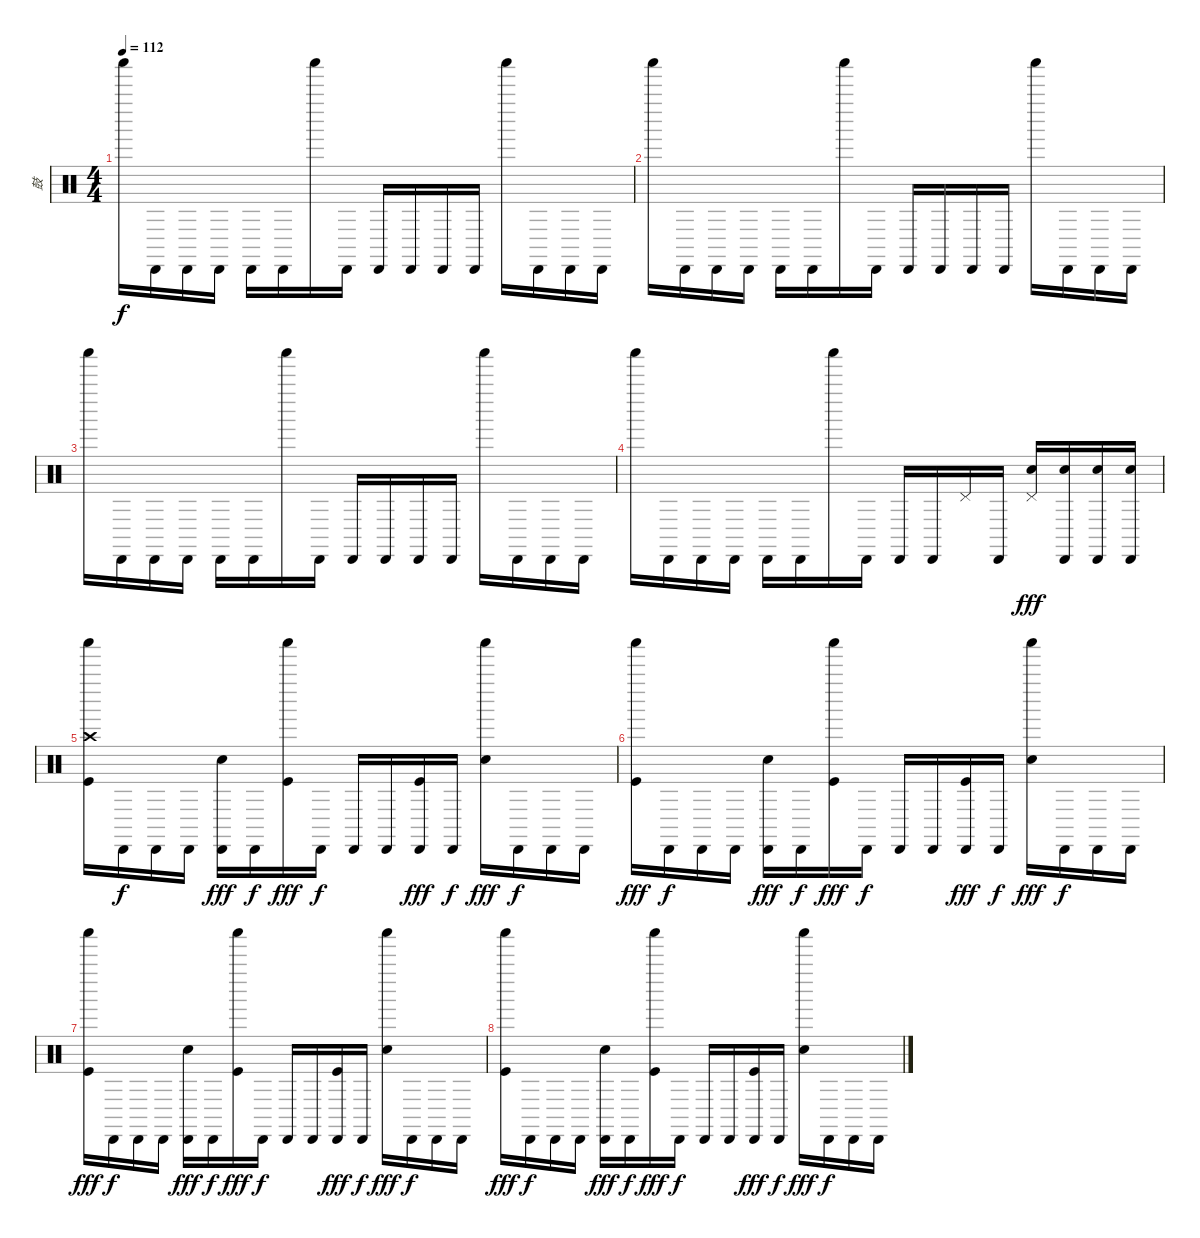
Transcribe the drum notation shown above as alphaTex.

\track ("鼓" "鼓") {instrument percussion}
\staff {score}
\articulation defaults
\ts (4 4)
\tempo 112
\clef neutral
\ks c "Shaker (hit)".16{dy f} "Cabasa (hit)".16 "Cabasa (hit)".16 "Cabasa (hit)".16 "Cabasa (hit)".16 "Cabasa (hit)".16 "Shaker (hit)".16 "Cabasa (hit)".16 "Cabasa (hit)".16 "Cabasa (hit)".16 "Cabasa (hit)".16 "Cabasa (hit)".16 "Shaker (hit)".16 "Cabasa (hit)".16 "Cabasa (hit)".16 "Cabasa (hit)".16
|
"Shaker (hit)".16 "Cabasa (hit)".16 "Cabasa (hit)".16 "Cabasa (hit)".16 "Cabasa (hit)".16 "Cabasa (hit)".16 "Shaker (hit)".16 "Cabasa (hit)".16 "Cabasa (hit)".16 "Cabasa (hit)".16 "Cabasa (hit)".16 "Cabasa (hit)".16 "Shaker (hit)".16 "Cabasa (hit)".16 "Cabasa (hit)".16 "Cabasa (hit)".16 |
"Shaker (hit)".16 "Cabasa (hit)".16 "Cabasa (hit)".16 "Cabasa (hit)".16 "Cabasa (hit)".16 "Cabasa (hit)".16 "Shaker (hit)".16 "Cabasa (hit)".16 "Cabasa (hit)".16 "Cabasa (hit)".16 "Cabasa (hit)".16 "Cabasa (hit)".16 "Shaker (hit)".16 "Cabasa (hit)".16 "Cabasa (hit)".16 "Cabasa (hit)".16 |
"Shaker (hit)".16 "Cabasa (hit)".16 "Cabasa (hit)".16 "Cabasa (hit)".16 "Cabasa (hit)".16 "Cabasa (hit)".16 "Shaker (hit)".16 "Cabasa (hit)".16 "Cabasa (hit)".16 "Cabasa (hit)".16 "Pedal Hi-Hat (hit)".16 "Cabasa (hit)".16 ("Pedal Hi-Hat (hit)" "Electric Snare (hit)").16{dy fff} ("Cabasa (hit)" "Electric Snare (hit)").16 ("Cabasa (hit)" "Electric Snare (hit)").16 ("Cabasa (hit)" "Electric Snare (hit)").16 |
("Shaker (hit)" "Crash high (hit)" "Kick (hit)").16 "Cabasa (hit)".16{dy f} "Cabasa (hit)".16 "Cabasa (hit)".16 ("Cabasa (hit)" "Electric Snare (hit)").16{dy fff} "Cabasa (hit)".16{dy f} ("Shaker (hit)" "Kick (hit)").16{dy fff} "Cabasa (hit)".16{dy f} "Cabasa (hit)".16 "Cabasa (hit)".16 ("Cabasa (hit)" "Kick (hit)").16{dy fff} "Cabasa (hit)".16{dy f} ("Shaker (hit)" "Electric Snare (hit)").16{dy fff} "Cabasa (hit)".16{dy f} "Cabasa (hit)".16 "Cabasa (hit)".16 |
("Shaker (hit)" "Kick (hit)").16{dy fff} "Cabasa (hit)".16{dy f} "Cabasa (hit)".16 "Cabasa (hit)".16 ("Cabasa (hit)" "Electric Snare (hit)").16{dy fff} "Cabasa (hit)".16{dy f} ("Shaker (hit)" "Kick (hit)").16{dy fff} "Cabasa (hit)".16{dy f} "Cabasa (hit)".16 "Cabasa (hit)".16 ("Cabasa (hit)" "Kick (hit)").16{dy fff} "Cabasa (hit)".16{dy f} ("Shaker (hit)" "Electric Snare (hit)").16{dy fff} "Cabasa (hit)".16{dy f} "Cabasa (hit)".16 "Cabasa (hit)".16 |
("Shaker (hit)" "Kick (hit)").16{dy fff} "Cabasa (hit)".16{dy f} "Cabasa (hit)".16 "Cabasa (hit)".16 ("Cabasa (hit)" "Electric Snare (hit)").16{dy fff} "Cabasa (hit)".16{dy f} ("Shaker (hit)" "Kick (hit)").16{dy fff} "Cabasa (hit)".16{dy f} "Cabasa (hit)".16 "Cabasa (hit)".16 ("Cabasa (hit)" "Kick (hit)").16{dy fff} "Cabasa (hit)".16{dy f} ("Shaker (hit)" "Electric Snare (hit)").16{dy fff} "Cabasa (hit)".16{dy f} "Cabasa (hit)".16 "Cabasa (hit)".16 |
("Shaker (hit)" "Kick (hit)").16{dy fff} "Cabasa (hit)".16{dy f} "Cabasa (hit)".16 "Cabasa (hit)".16 ("Cabasa (hit)" "Electric Snare (hit)").16{dy fff} "Cabasa (hit)".16{dy f} ("Shaker (hit)" "Kick (hit)").16{dy fff} "Cabasa (hit)".16{dy f} "Cabasa (hit)".16 "Cabasa (hit)".16 ("Cabasa (hit)" "Kick (hit)").16{dy fff} "Cabasa (hit)".16{dy f} ("Shaker (hit)" "Electric Snare (hit)").16{dy fff} "Cabasa (hit)".16{dy f} "Cabasa (hit)".16 "Cabasa (hit)".16
